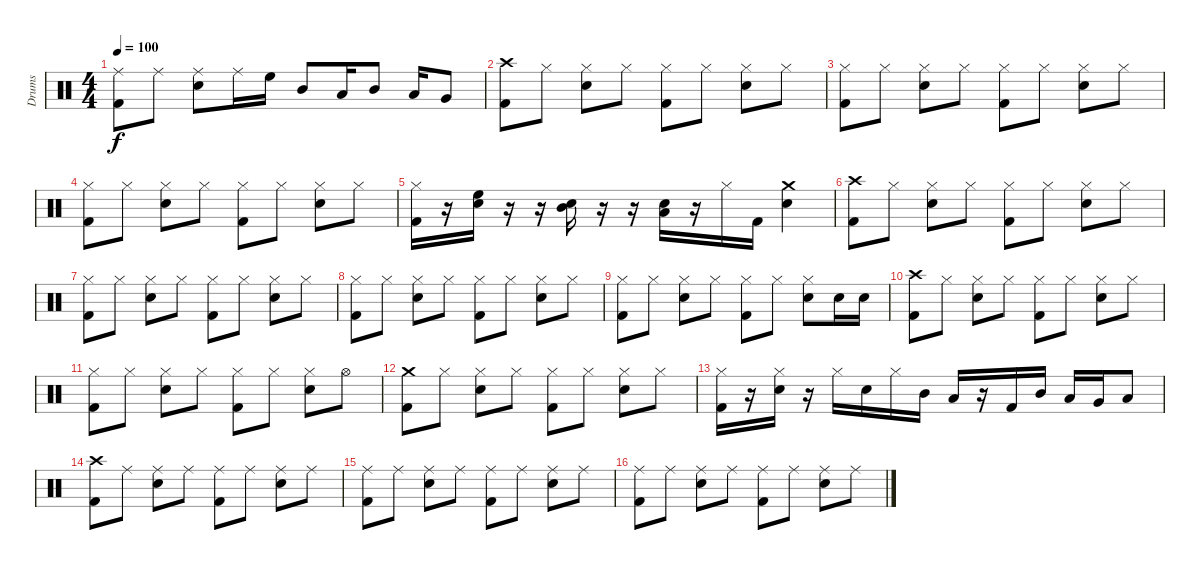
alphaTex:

\track ("Drums" "Drums") {instrument percussion}
\staff {score}
\articulation defaults
\ts (4 4)
\tempo 100
\clef neutral
\ks c
("Ride (middle)" "Kick (hit) 2").8{dy f} "Ride (middle)".8 ("Ride (middle)" "Snare (hit) 2").8 "Ride (middle)".16 "High Floor Tom (hit)".16 "Mid Tom (hit)".8 "Low Tom (hit)".16 "Mid Tom (hit)".8 "Low Tom (hit)".16 "Very Low Tom (hit)".8 |
("Crash high (hit)" "Kick (hit) 2").8 "Hi-Hat (closed)".8 ("Hi-Hat (closed)" "Snare (hit) 2").8 "Hi-Hat (closed)".8 ("Hi-Hat (closed)" "Kick (hit) 2").8 "Hi-Hat (closed)".8 ("Hi-Hat (closed)" "Snare (hit) 2").8 "Hi-Hat (closed)".8 |
("Hi-Hat (closed)" "Kick (hit) 2").8 "Hi-Hat (closed)".8 ("Hi-Hat (closed)" "Snare (hit) 2").8 "Hi-Hat (closed)".8 ("Hi-Hat (closed)" "Kick (hit) 2").8 "Hi-Hat (closed)".8 ("Hi-Hat (closed)" "Snare (hit) 2").8 "Hi-Hat (closed)".8 |
("Hi-Hat (closed)" "Kick (hit) 2").8 "Hi-Hat (closed)".8 ("Hi-Hat (closed)" "Snare (hit) 2").8 "Hi-Hat (closed)".8 ("Hi-Hat (closed)" "Kick (hit) 2").8 "Hi-Hat (closed)".8 ("Hi-Hat (closed)" "Snare (hit) 2").8 "Hi-Hat (closed)".8 |
("Hi-Hat (closed)" "Kick (hit) 2").16 r.16 ("High Floor Tom (hit)" "Snare (hit) 2").16 r.16 r.16 ("Mid Tom (hit)" "Snare (hit) 2").16 r.16 r.16 ("Low Tom (hit)" "Snare (hit) 2").16 r.16 "Hi-Hat (closed)".16 "Kick (hit) 2".16 ("Crash medium (hit)" "Snare (hit) 2").4 |
("Crash high (hit)" "Kick (hit) 2").8 "Hi-Hat (closed)".8 ("Hi-Hat (closed)" "Snare (hit) 2").8 "Hi-Hat (closed)".8 ("Hi-Hat (closed)" "Kick (hit) 2").8 "Hi-Hat (closed)".8 ("Hi-Hat (closed)" "Snare (hit) 2").8 "Hi-Hat (closed)".8 |
("Hi-Hat (closed)" "Kick (hit) 2").8 "Hi-Hat (closed)".8 ("Hi-Hat (closed)" "Snare (hit) 2").8 "Hi-Hat (closed)".8 ("Hi-Hat (closed)" "Kick (hit) 2").8 "Hi-Hat (closed)".8 ("Hi-Hat (closed)" "Snare (hit) 2").8 "Hi-Hat (closed)".8 |
("Hi-Hat (closed)" "Kick (hit) 2").8 "Hi-Hat (closed)".8 ("Hi-Hat (closed)" "Snare (hit) 2").8 "Hi-Hat (closed)".8 ("Hi-Hat (closed)" "Kick (hit) 2").8 "Hi-Hat (closed)".8 ("Hi-Hat (closed)" "Snare (hit) 2").8 "Hi-Hat (closed)".8 |
("Hi-Hat (closed)" "Kick (hit) 2").8 "Hi-Hat (closed)".8 ("Hi-Hat (closed)" "Snare (hit) 2").8 "Hi-Hat (closed)".8 ("Hi-Hat (closed)" "Kick (hit) 2").8 "Hi-Hat (closed)".8 ("Hi-Hat (closed)" "Snare (hit) 2").8 "Snare (hit) 2".16 "Snare (hit) 2".16 |
("Crash high (hit)" "Kick (hit) 2").8 "Hi-Hat (closed)".8 ("Hi-Hat (closed)" "Snare (hit) 2").8 "Hi-Hat (closed)".8 ("Hi-Hat (closed)" "Kick (hit) 2").8 "Hi-Hat (closed)".8 ("Hi-Hat (closed)" "Snare (hit) 2").8 "Hi-Hat (closed)".8 |
("Hi-Hat (closed)" "Kick (hit) 2").8 "Hi-Hat (closed)".8 ("Hi-Hat (closed)" "Snare (hit) 2").8 "Hi-Hat (closed)".8 ("Hi-Hat (closed)" "Kick (hit) 2").8 "Hi-Hat (closed)".8 ("Hi-Hat (closed)" "Snare (hit) 2").8 "Hi-Hat (open)".8 |
("Crash medium (hit)" "Kick (hit) 2").8 "Hi-Hat (closed)".8 ("Hi-Hat (closed)" "Snare (hit) 2").8 "Hi-Hat (closed)".8 ("Hi-Hat (closed)" "Kick (hit) 2").8 "Hi-Hat (closed)".8 ("Hi-Hat (closed)" "Snare (hit) 2").8 "Hi-Hat (closed)".8 |
("Hi-Hat (closed)" "Kick (hit) 2").16 r.16 ("Hi-Hat (closed)" "Snare (hit) 2").16 r.16 "Hi-Hat (closed)".16 "Snare (hit) 2".16 "Hi-Hat (closed)".16 "Mid Tom (hit)".16 "Low Tom (hit)".16 r.16 "Kick (hit) 2".16 "Mid Tom (hit)".16 "Low Tom (hit)".16 "Very Low Tom (hit)".16 "Low Floor Tom (hit)".8 |
("Crash high (hit)" "Kick (hit) 2").8 "Ride (middle)".8 ("Ride (middle)" "Snare (hit) 2").8 "Ride (middle)".8 ("Ride (middle)" "Kick (hit) 2").8 "Ride (middle)".8 ("Ride (middle)" "Snare (hit) 2").8 "Ride (middle)".8 |
("Ride (middle)" "Kick (hit) 2").8 "Ride (middle)".8 ("Ride (middle)" "Snare (hit) 2").8 "Ride (middle)".8 ("Ride (middle)" "Kick (hit) 2").8 "Ride (middle)".8 ("Ride (middle)" "Snare (hit) 2").8 "Ride (middle)".8 |
("Ride (middle)" "Kick (hit) 2").8 "Ride (middle)".8 ("Ride (middle)" "Snare (hit) 2").8 "Ride (middle)".8 ("Ride (middle)" "Kick (hit) 2").8 "Ride (middle)".8 ("Ride (middle)" "Snare (hit) 2").8 "Ride (middle)".8
